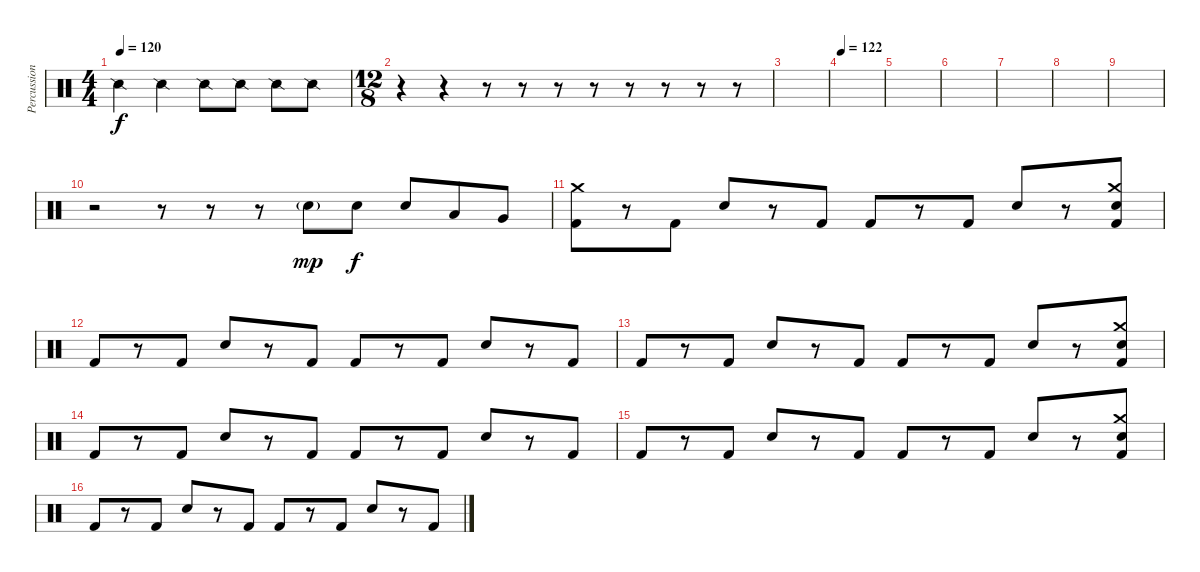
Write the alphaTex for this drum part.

\track ("Percussion" "Percussion") {instrument percussion}
\staff {score}
\articulation defaults
\ts (4 4)
\tempo 120
\clef neutral
\ks c "Snare (side stick) 2".4{dy f} "Snare (side stick) 2".4 "Snare (side stick) 2".8 "Snare (side stick) 2".8 "Snare (side stick) 2".8 "Snare (side stick) 2".8
|
\ts (12 8)
r.4 r.4 r.8 r.8 r.8 r.8 r.8 r.8 r.8 r.8 |
|
\tempo 122
|
|
|
|
|
|
r.2 r.8 r.8 r.8 "Snare (hit) 2"{g}.8{dy mp} "Snare (hit) 2".8{dy f} "Snare (hit) 2".8 "Low Tom (hit)".8 "Very Low Tom (hit)".8 |
("Crash medium (hit)" "Kick (hit) 2").8 r.8 "Kick (hit) 2".8 "Snare (hit) 2".8 r.8 "Kick (hit) 2".8 "Kick (hit) 2".8 r.8 "Kick (hit) 2".8 "Snare (hit) 2".8 r.8 ("Crash medium (hit)" "Snare (hit) 2" "Kick (hit) 2").8 |
"Kick (hit) 2".8 r.8 "Kick (hit) 2".8 "Snare (hit) 2".8 r.8 "Kick (hit) 2".8 "Kick (hit) 2".8 r.8 "Kick (hit) 2".8 "Snare (hit) 2".8 r.8 "Kick (hit) 2".8 |
"Kick (hit) 2".8 r.8 "Kick (hit) 2".8 "Snare (hit) 2".8 r.8 "Kick (hit) 2".8 "Kick (hit) 2".8 r.8 "Kick (hit) 2".8 "Snare (hit) 2".8 r.8 ("Crash medium (hit)" "Snare (hit) 2" "Kick (hit) 2").8 |
"Kick (hit) 2".8 r.8 "Kick (hit) 2".8 "Snare (hit) 2".8 r.8 "Kick (hit) 2".8 "Kick (hit) 2".8 r.8 "Kick (hit) 2".8 "Snare (hit) 2".8 r.8 "Kick (hit) 2".8 |
"Kick (hit) 2".8 r.8 "Kick (hit) 2".8 "Snare (hit) 2".8 r.8 "Kick (hit) 2".8 "Kick (hit) 2".8 r.8 "Kick (hit) 2".8 "Snare (hit) 2".8 r.8 ("Crash medium (hit)" "Snare (hit) 2" "Kick (hit) 2").8 |
"Kick (hit) 2".8 r.8 "Kick (hit) 2".8 "Snare (hit) 2".8 r.8 "Kick (hit) 2".8 "Kick (hit) 2".8 r.8 "Kick (hit) 2".8 "Snare (hit) 2".8 r.8 "Kick (hit) 2".8
